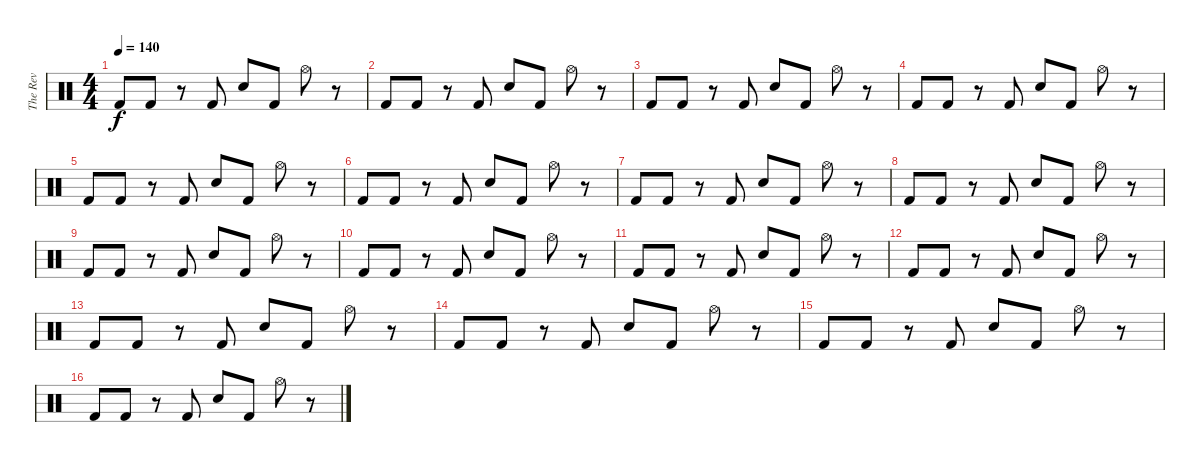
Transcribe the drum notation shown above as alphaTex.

\track ("The Rev" "The Rev") {instrument percussion}
\staff {score}
\articulation defaults
\ts (4 4)
\tempo 140
\clef neutral
\ks c "Kick (hit) 2".8{dy f} "Kick (hit) 2".8
r.8 "Kick (hit) 2".8 "Snare (hit) 2".8 "Kick (hit) 2".8 "Hi-Hat (open)".8 r.8 |
"Kick (hit) 2".8 "Kick (hit) 2".8 r.8 "Kick (hit) 2".8 "Snare (hit) 2".8 "Kick (hit) 2".8 "Hi-Hat (open)".8 r.8 |
"Kick (hit) 2".8 "Kick (hit) 2".8 r.8 "Kick (hit) 2".8 "Snare (hit) 2".8 "Kick (hit) 2".8 "Hi-Hat (open)".8 r.8 |
"Kick (hit) 2".8 "Kick (hit) 2".8 r.8 "Kick (hit) 2".8 "Snare (hit) 2".8 "Kick (hit) 2".8 "Hi-Hat (open)".8 r.8 |
"Kick (hit) 2".8 "Kick (hit) 2".8 r.8 "Kick (hit) 2".8 "Snare (hit) 2".8 "Kick (hit) 2".8 "Hi-Hat (open)".8 r.8 |
"Kick (hit) 2".8 "Kick (hit) 2".8 r.8 "Kick (hit) 2".8 "Snare (hit) 2".8 "Kick (hit) 2".8 "Hi-Hat (open)".8 r.8 |
"Kick (hit) 2".8 "Kick (hit) 2".8 r.8 "Kick (hit) 2".8 "Snare (hit) 2".8 "Kick (hit) 2".8 "Hi-Hat (open)".8 r.8 |
"Kick (hit) 2".8 "Kick (hit) 2".8 r.8 "Kick (hit) 2".8 "Snare (hit) 2".8 "Kick (hit) 2".8 "Hi-Hat (open)".8 r.8 |
"Kick (hit) 2".8 "Kick (hit) 2".8 r.8 "Kick (hit) 2".8 "Snare (hit) 2".8 "Kick (hit) 2".8 "Hi-Hat (open)".8 r.8 |
"Kick (hit) 2".8 "Kick (hit) 2".8 r.8 "Kick (hit) 2".8 "Snare (hit) 2".8 "Kick (hit) 2".8 "Hi-Hat (open)".8 r.8 |
"Kick (hit) 2".8 "Kick (hit) 2".8 r.8 "Kick (hit) 2".8 "Snare (hit) 2".8 "Kick (hit) 2".8 "Hi-Hat (open)".8 r.8 |
"Kick (hit) 2".8 "Kick (hit) 2".8 r.8 "Kick (hit) 2".8 "Snare (hit) 2".8 "Kick (hit) 2".8 "Hi-Hat (open)".8 r.8 |
"Kick (hit) 2".8 "Kick (hit) 2".8 r.8 "Kick (hit) 2".8 "Snare (hit) 2".8 "Kick (hit) 2".8 "Hi-Hat (open)".8 r.8 |
"Kick (hit) 2".8 "Kick (hit) 2".8 r.8 "Kick (hit) 2".8 "Snare (hit) 2".8 "Kick (hit) 2".8 "Hi-Hat (open)".8 r.8 |
"Kick (hit) 2".8 "Kick (hit) 2".8 r.8 "Kick (hit) 2".8 "Snare (hit) 2".8 "Kick (hit) 2".8 "Hi-Hat (open)".8 r.8 |
"Kick (hit) 2".8 "Kick (hit) 2".8 r.8 "Kick (hit) 2".8 "Snare (hit) 2".8 "Kick (hit) 2".8 "Hi-Hat (open)".8 r.8
